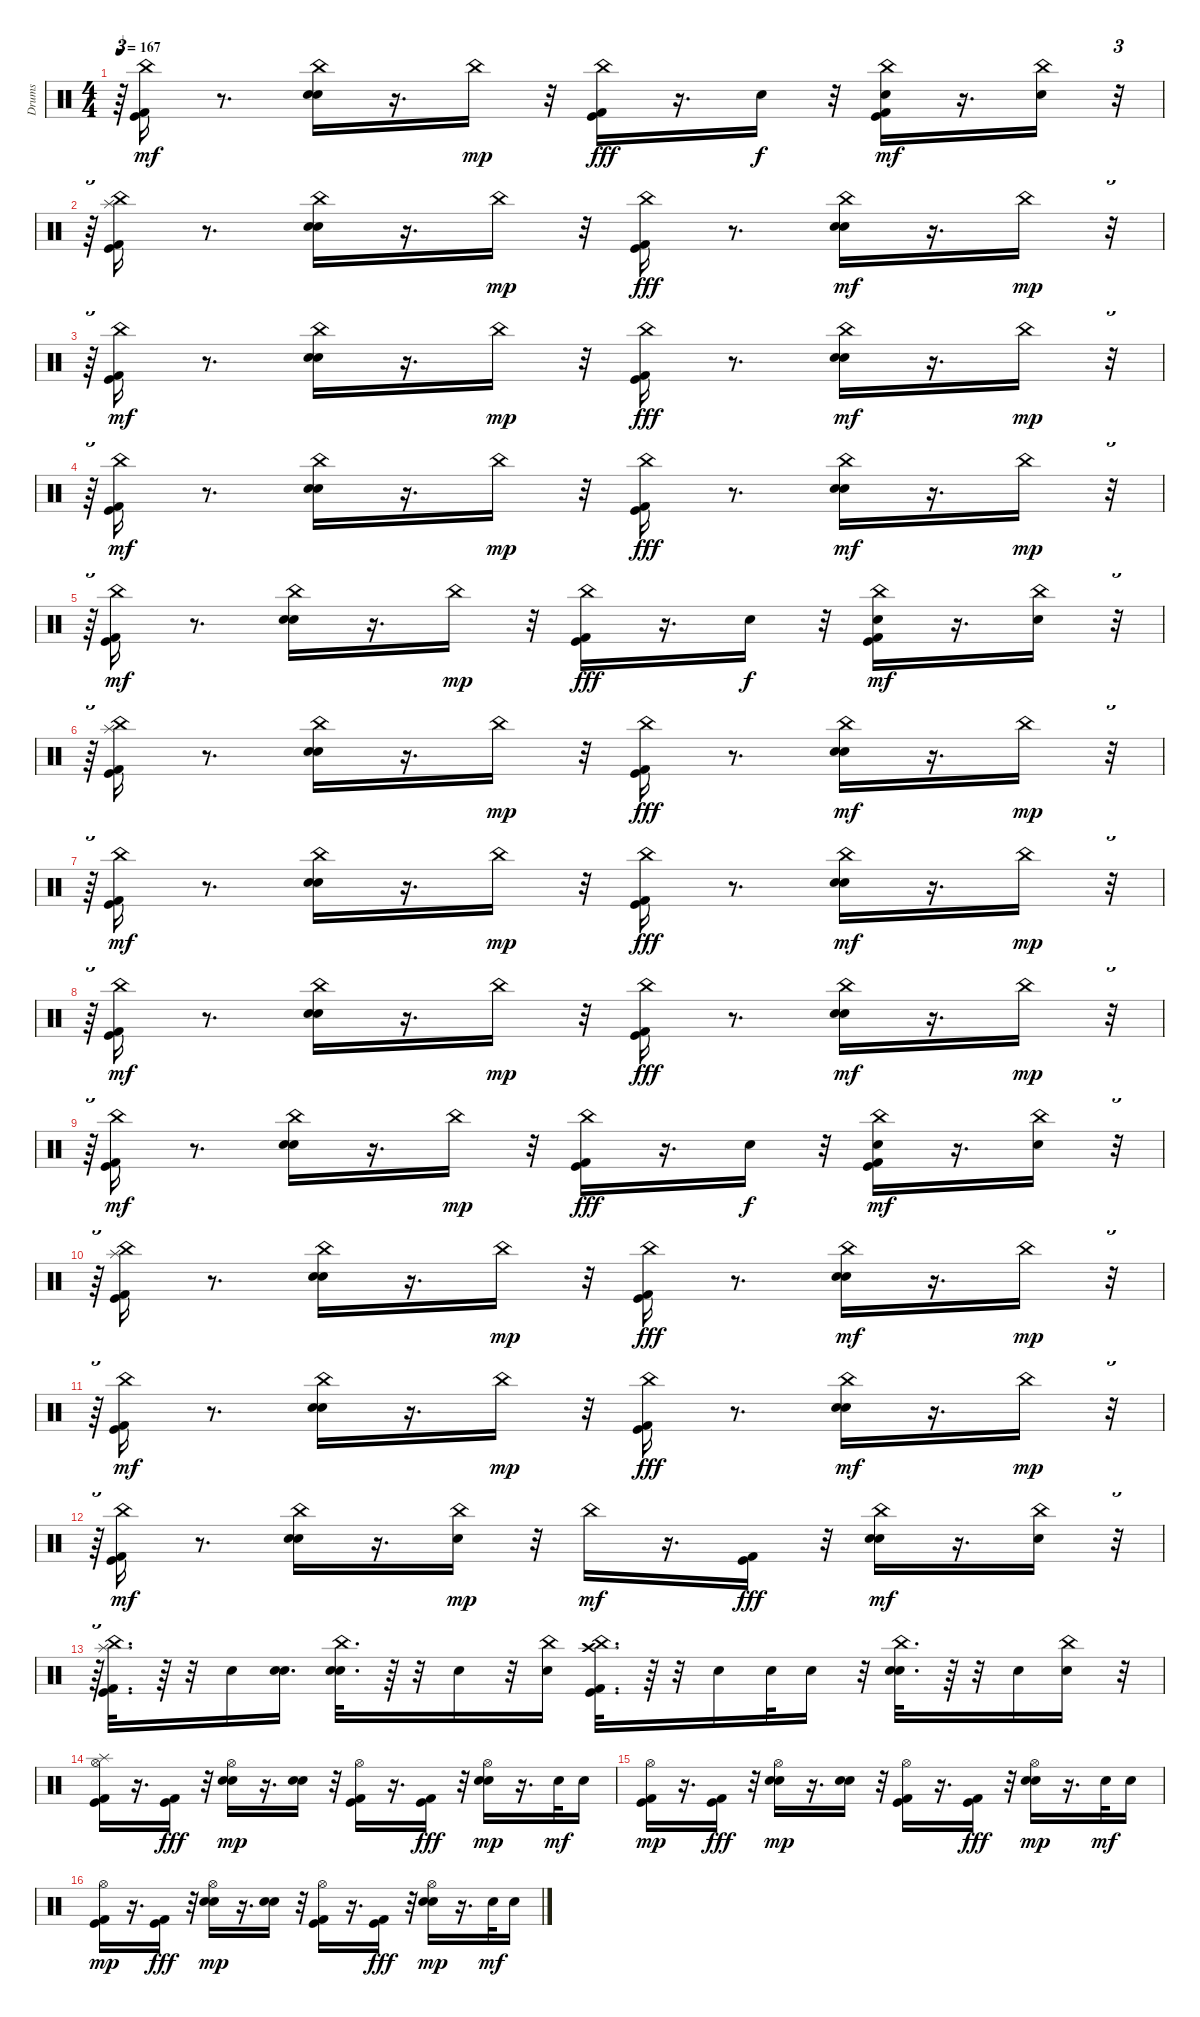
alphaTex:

\track ("Drums" "Drums") {instrument percussion}
\staff {score}
\articulation defaults
\ts (4 4)
\tempo 167
\clef neutral
\ks c
r.64{tu (3 2) dy mp} ("Kick (hit) 2" "Kick (hit)" "China (hit)").16{dy mf} r.8{d} ("Snare (hit) 2" "China (hit)" "Hand Clap (hit)").16 r.16{d} "China (hit)".16{dy mp} r.32 ("China (hit)" "Kick (hit) 2" "Kick (hit)").16{dy fff} r.16{d} "Snare (hit) 2".16{dy f} r.32 ("China (hit)" "Kick (hit) 2" "Kick (hit)" "Hand Clap (hit)").16{dy mf} r.16{d} ("China (hit)" "Snare (hit) 2").16 r.32{tu (3 2)} |
r.64{tu (3 2)} ("Kick (hit) 2" "Kick (hit)" "Splash (hit)" "China (hit)").16 r.8{d} ("Snare (hit) 2" "China (hit)" "Hand Clap (hit)").16 r.16{d} "China (hit)".16{dy mp} r.32 ("China (hit)" "Kick (hit) 2" "Kick (hit)").16{dy fff} r.8{d} ("Snare (hit) 2" "China (hit)" "Hand Clap (hit)").16{dy mf} r.16{d} "China (hit)".16{dy mp} r.32{tu (3 2)} |
r.64{tu (3 2)} ("Kick (hit) 2" "Kick (hit)" "China (hit)").16{dy mf} r.8{d} ("Snare (hit) 2" "China (hit)" "Hand Clap (hit)").16 r.16{d} "China (hit)".16{dy mp} r.32 ("China (hit)" "Kick (hit) 2" "Kick (hit)").16{dy fff} r.8{d} ("Snare (hit) 2" "China (hit)" "Hand Clap (hit)").16{dy mf} r.16{d} "China (hit)".16{dy mp} r.32{tu (3 2)} |
r.64{tu (3 2)} ("Kick (hit) 2" "Kick (hit)" "China (hit)").16{dy mf} r.8{d} ("Snare (hit) 2" "China (hit)" "Hand Clap (hit)").16 r.16{d} "China (hit)".16{dy mp} r.32 ("China (hit)" "Kick (hit) 2" "Kick (hit)").16{dy fff} r.8{d} ("Snare (hit) 2" "China (hit)" "Hand Clap (hit)").16{dy mf} r.16{d} "China (hit)".16{dy mp} r.32{tu (3 2)} |
r.64{tu (3 2)} ("Kick (hit) 2" "Kick (hit)" "China (hit)").16{dy mf} r.8{d} ("Snare (hit) 2" "China (hit)" "Hand Clap (hit)").16 r.16{d} "China (hit)".16{dy mp} r.32 ("China (hit)" "Kick (hit) 2" "Kick (hit)").16{dy fff} r.16{d} "Snare (hit) 2".16{dy f} r.32 ("China (hit)" "Kick (hit) 2" "Kick (hit)" "Hand Clap (hit)").16{dy mf} r.16{d} ("China (hit)" "Snare (hit) 2").16 r.32{tu (3 2)} |
r.64{tu (3 2)} ("Kick (hit) 2" "Kick (hit)" "Splash (hit)" "China (hit)").16 r.8{d} ("Snare (hit) 2" "China (hit)" "Hand Clap (hit)").16 r.16{d} "China (hit)".16{dy mp} r.32 ("China (hit)" "Kick (hit) 2" "Kick (hit)").16{dy fff} r.8{d} ("Snare (hit) 2" "China (hit)" "Hand Clap (hit)").16{dy mf} r.16{d} "China (hit)".16{dy mp} r.32{tu (3 2)} |
r.64{tu (3 2)} ("Kick (hit) 2" "Kick (hit)" "China (hit)").16{dy mf} r.8{d} ("Snare (hit) 2" "China (hit)" "Hand Clap (hit)").16 r.16{d} "China (hit)".16{dy mp} r.32 ("China (hit)" "Kick (hit) 2" "Kick (hit)").16{dy fff} r.8{d} ("Snare (hit) 2" "China (hit)" "Hand Clap (hit)").16{dy mf} r.16{d} "China (hit)".16{dy mp} r.32{tu (3 2)} |
r.64{tu (3 2)} ("Kick (hit) 2" "Kick (hit)" "China (hit)").16{dy mf} r.8{d} ("Snare (hit) 2" "China (hit)" "Hand Clap (hit)").16 r.16{d} "China (hit)".16{dy mp} r.32 ("China (hit)" "Kick (hit) 2" "Kick (hit)").16{dy fff} r.8{d} ("Snare (hit) 2" "China (hit)" "Hand Clap (hit)").16{dy mf} r.16{d} "China (hit)".16{dy mp} r.32{tu (3 2)} |
r.64{tu (3 2)} ("Kick (hit) 2" "Kick (hit)" "China (hit)").16{dy mf} r.8{d} ("Snare (hit) 2" "China (hit)" "Hand Clap (hit)").16 r.16{d} "China (hit)".16{dy mp} r.32 ("China (hit)" "Kick (hit) 2" "Kick (hit)").16{dy fff} r.16{d} "Snare (hit) 2".16{dy f} r.32 ("China (hit)" "Kick (hit) 2" "Kick (hit)" "Hand Clap (hit)").16{dy mf} r.16{d} ("China (hit)" "Snare (hit) 2").16 r.32{tu (3 2)} |
r.64{tu (3 2)} ("Kick (hit) 2" "Kick (hit)" "Splash (hit)" "China (hit)").16 r.8{d} ("Snare (hit) 2" "China (hit)" "Hand Clap (hit)").16 r.16{d} "China (hit)".16{dy mp} r.32 ("China (hit)" "Kick (hit) 2" "Kick (hit)").16{dy fff} r.8{d} ("Snare (hit) 2" "China (hit)" "Hand Clap (hit)").16{dy mf} r.16{d} "China (hit)".16{dy mp} r.32{tu (3 2)} |
r.64{tu (3 2)} ("Kick (hit) 2" "Kick (hit)" "China (hit)").16{dy mf} r.8{d} ("Snare (hit) 2" "China (hit)" "Hand Clap (hit)").16 r.16{d} "China (hit)".16{dy mp} r.32 ("China (hit)" "Kick (hit) 2" "Kick (hit)").16{dy fff} r.8{d} ("Snare (hit) 2" "China (hit)" "Hand Clap (hit)").16{dy mf} r.16{d} "China (hit)".16{dy mp} r.32{tu (3 2)} |
r.64{tu (3 2)} ("Kick (hit) 2" "Kick (hit)" "China (hit)").16{dy mf} r.8{d} ("Snare (hit) 2" "China (hit)" "Hand Clap (hit)").16 r.16{d} ("China (hit)" "Snare (hit) 2").16{dy mp} r.32 "China (hit)".16{dy mf} r.16{d} ("Kick (hit) 2" "Kick (hit)").16{dy fff} r.32 ("Snare (hit) 2" "China (hit)" "Hand Clap (hit)").16{dy mf} r.16{d} ("China (hit)" "Snare (hit) 2").16 r.32{tu (3 2)} |
r.64{tu (3 2)} ("Kick (hit) 2" "Kick (hit)" "China (hit)" "Splash (hit)").32{d} r.64 r.32 "Snare (hit) 2".16 ("Snare (hit) 2" "Snare (hit) 2").16{d} ("Snare (hit) 2" "China (hit)" "Hand Clap (hit)").32{d} r.64 r.32 "Snare (hit) 2".16 r.32 ("China (hit)" "Snare (hit) 2").16 ("China (hit)" "Kick (hit) 2" "Kick (hit)" "Crash high (hit)").32{d} r.64 r.32 "Snare (hit) 2".16 "Snare (hit) 2".32 "Snare (hit) 2".16 r.32 ("China (hit)" "Hand Clap (hit)" "Snare (hit) 2").32{d} r.64 r.32 "Snare (hit) 2".16 ("China (hit)" "Snare (hit) 2").16 r.32 |
("Kick (hit) 2" "Kick (hit)" "Hi-Hat (open)" "Splash (hit)").16 r.16{d} ("Kick (hit) 2" "Kick (hit)").16{dy fff} r.32 ("Snare (hit) 2" "Hand Clap (hit)" "Hi-Hat (open)").16{dy mp} r.16{d} ("Snare (hit) 2" "Hand Clap (hit)").16 r.32 ("Kick (hit) 2" "Kick (hit)" "Hi-Hat (open)").16 r.16{d} ("Kick (hit) 2" "Kick (hit)").16{dy fff} r.32 ("Snare (hit) 2" "Hand Clap (hit)" "Hi-Hat (open)").16{dy mp} r.16{d} "Snare (hit) 2".32{dy mf} "Hand Clap (hit)".16 |
("Kick (hit) 2" "Kick (hit)" "Hi-Hat (open)").16{dy mp} r.16{d} ("Kick (hit) 2" "Kick (hit)").16{dy fff} r.32 ("Snare (hit) 2" "Hand Clap (hit)" "Hi-Hat (open)").16{dy mp} r.16{d} ("Snare (hit) 2" "Hand Clap (hit)").16 r.32 ("Kick (hit) 2" "Kick (hit)" "Hi-Hat (open)").16 r.16{d} ("Kick (hit) 2" "Kick (hit)").16{dy fff} r.32 ("Snare (hit) 2" "Hand Clap (hit)" "Hi-Hat (open)").16{dy mp} r.16{d} "Snare (hit) 2".32{dy mf} "Hand Clap (hit)".16 |
("Kick (hit) 2" "Kick (hit)" "Hi-Hat (open)").16{dy mp} r.16{d} ("Kick (hit) 2" "Kick (hit)").16{dy fff} r.32 ("Snare (hit) 2" "Hand Clap (hit)" "Hi-Hat (open)").16{dy mp} r.16{d} ("Snare (hit) 2" "Hand Clap (hit)").16 r.32 ("Kick (hit) 2" "Kick (hit)" "Hi-Hat (open)").16 r.16{d} ("Kick (hit) 2" "Kick (hit)").16{dy fff} r.32 ("Snare (hit) 2" "Hand Clap (hit)" "Hi-Hat (open)").16{dy mp} r.16{d} "Snare (hit) 2".32{dy mf} "Hand Clap (hit)".16
